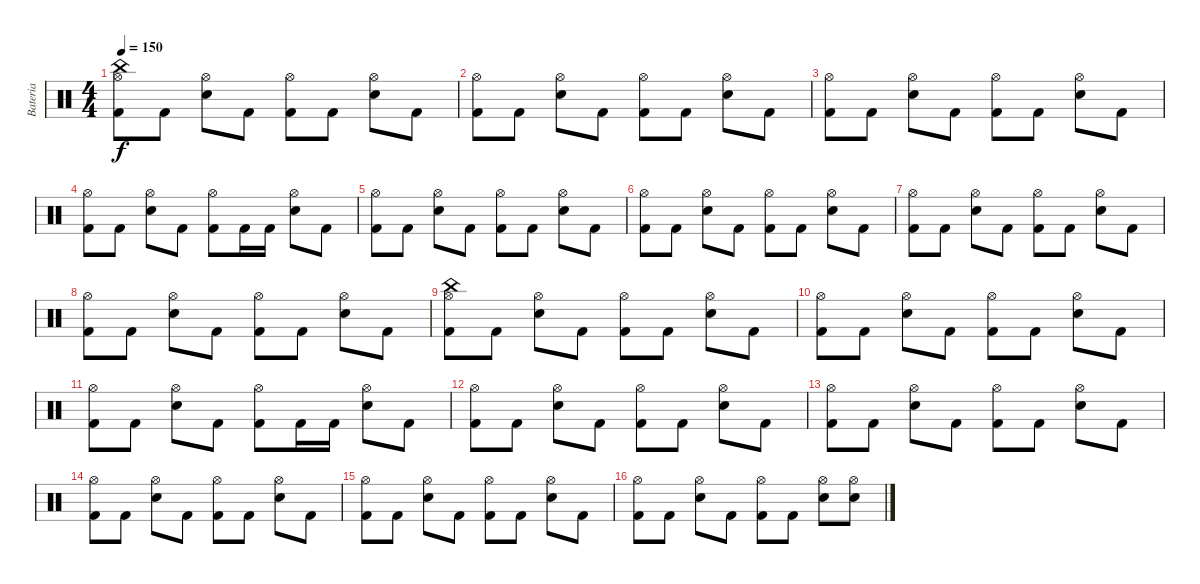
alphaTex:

\track ("Bateria" "Bateria") {instrument percussion}
\staff {score}
\articulation defaults
\ts (4 4)
\tempo 150
\clef neutral
\ks c
("Kick (hit) 2" "China (hit)" "Hi-Hat (open)").8{dy f} "Kick (hit) 2".8 ("Electric Snare (hit)" "Hi-Hat (open)").8 "Kick (hit) 2".8 ("Kick (hit) 2" "Hi-Hat (open)").8 "Kick (hit) 2".8 ("Electric Snare (hit)" "Hi-Hat (open)").8 "Kick (hit) 2".8 |
("Kick (hit) 2" "Hi-Hat (open)").8 "Kick (hit) 2".8 ("Electric Snare (hit)" "Hi-Hat (open)").8 "Kick (hit) 2".8 ("Kick (hit) 2" "Hi-Hat (open)").8 "Kick (hit) 2".8 ("Electric Snare (hit)" "Hi-Hat (open)").8 "Kick (hit) 2".8 |
("Kick (hit) 2" "Hi-Hat (open)").8 "Kick (hit) 2".8 ("Electric Snare (hit)" "Hi-Hat (open)").8 "Kick (hit) 2".8 ("Kick (hit) 2" "Hi-Hat (open)").8 "Kick (hit) 2".8 ("Electric Snare (hit)" "Hi-Hat (open)").8 "Kick (hit) 2".8 |
("Kick (hit) 2" "Hi-Hat (open)").8 "Kick (hit) 2".8 ("Electric Snare (hit)" "Hi-Hat (open)").8 "Kick (hit) 2".8 ("Kick (hit) 2" "Hi-Hat (open)").8 "Kick (hit) 2".16 "Kick (hit) 2".16 ("Electric Snare (hit)" "Hi-Hat (open)").8 "Kick (hit) 2".8 |
("Kick (hit) 2" "Hi-Hat (open)").8 "Kick (hit) 2".8 ("Electric Snare (hit)" "Hi-Hat (open)").8 "Kick (hit) 2".8 ("Kick (hit) 2" "Hi-Hat (open)").8 "Kick (hit) 2".8 ("Electric Snare (hit)" "Hi-Hat (open)").8 "Kick (hit) 2".8 |
("Kick (hit) 2" "Hi-Hat (open)").8 "Kick (hit) 2".8 ("Electric Snare (hit)" "Hi-Hat (open)").8 "Kick (hit) 2".8 ("Kick (hit) 2" "Hi-Hat (open)").8 "Kick (hit) 2".8 ("Electric Snare (hit)" "Hi-Hat (open)").8 "Kick (hit) 2".8 |
("Kick (hit) 2" "Hi-Hat (open)").8 "Kick (hit) 2".8 ("Electric Snare (hit)" "Hi-Hat (open)").8 "Kick (hit) 2".8 ("Kick (hit) 2" "Hi-Hat (open)").8 "Kick (hit) 2".8 ("Electric Snare (hit)" "Hi-Hat (open)").8 "Kick (hit) 2".8 |
("Kick (hit) 2" "Hi-Hat (open)").8 "Kick (hit) 2".8 ("Electric Snare (hit)" "Hi-Hat (open)").8 "Kick (hit) 2".8 ("Kick (hit) 2" "Hi-Hat (open)").8 "Kick (hit) 2".8 ("Electric Snare (hit)" "Hi-Hat (open)").8 "Kick (hit) 2".8 |
("Kick (hit) 2" "China (hit)" "Hi-Hat (open)").8 "Kick (hit) 2".8 ("Electric Snare (hit)" "Hi-Hat (open)").8 "Kick (hit) 2".8 ("Kick (hit) 2" "Hi-Hat (open)").8 "Kick (hit) 2".8 ("Electric Snare (hit)" "Hi-Hat (open)").8 "Kick (hit) 2".8 |
("Kick (hit) 2" "Hi-Hat (open)").8 "Kick (hit) 2".8 ("Electric Snare (hit)" "Hi-Hat (open)").8 "Kick (hit) 2".8 ("Kick (hit) 2" "Hi-Hat (open)").8 "Kick (hit) 2".8 ("Electric Snare (hit)" "Hi-Hat (open)").8 "Kick (hit) 2".8 |
("Kick (hit) 2" "Hi-Hat (open)").8 "Kick (hit) 2".8 ("Electric Snare (hit)" "Hi-Hat (open)").8 "Kick (hit) 2".8 ("Kick (hit) 2" "Hi-Hat (open)").8 "Kick (hit) 2".16 "Kick (hit) 2".16 ("Electric Snare (hit)" "Hi-Hat (open)").8 "Kick (hit) 2".8 |
("Kick (hit) 2" "Hi-Hat (open)").8 "Kick (hit) 2".8 ("Electric Snare (hit)" "Hi-Hat (open)").8 "Kick (hit) 2".8 ("Kick (hit) 2" "Hi-Hat (open)").8 "Kick (hit) 2".8 ("Electric Snare (hit)" "Hi-Hat (open)").8 "Kick (hit) 2".8 |
("Kick (hit) 2" "Hi-Hat (open)").8 "Kick (hit) 2".8 ("Electric Snare (hit)" "Hi-Hat (open)").8 "Kick (hit) 2".8 ("Kick (hit) 2" "Hi-Hat (open)").8 "Kick (hit) 2".8 ("Electric Snare (hit)" "Hi-Hat (open)").8 "Kick (hit) 2".8 |
("Kick (hit) 2" "Hi-Hat (open)").8 "Kick (hit) 2".8 ("Electric Snare (hit)" "Hi-Hat (open)").8 "Kick (hit) 2".8 ("Kick (hit) 2" "Hi-Hat (open)").8 "Kick (hit) 2".8 ("Electric Snare (hit)" "Hi-Hat (open)").8 "Kick (hit) 2".8 |
("Kick (hit) 2" "Hi-Hat (open)").8 "Kick (hit) 2".8 ("Electric Snare (hit)" "Hi-Hat (open)").8 "Kick (hit) 2".8 ("Kick (hit) 2" "Hi-Hat (open)").8 "Kick (hit) 2".8 ("Electric Snare (hit)" "Hi-Hat (open)").8 "Kick (hit) 2".8 |
("Kick (hit) 2" "Hi-Hat (open)").8 "Kick (hit) 2".8 ("Electric Snare (hit)" "Hi-Hat (open)").8 "Kick (hit) 2".8 ("Kick (hit) 2" "Hi-Hat (open)").8 "Kick (hit) 2".8 ("Electric Snare (hit)" "Hi-Hat (open)").8 ("Electric Snare (hit)" "Hi-Hat (open)").8
